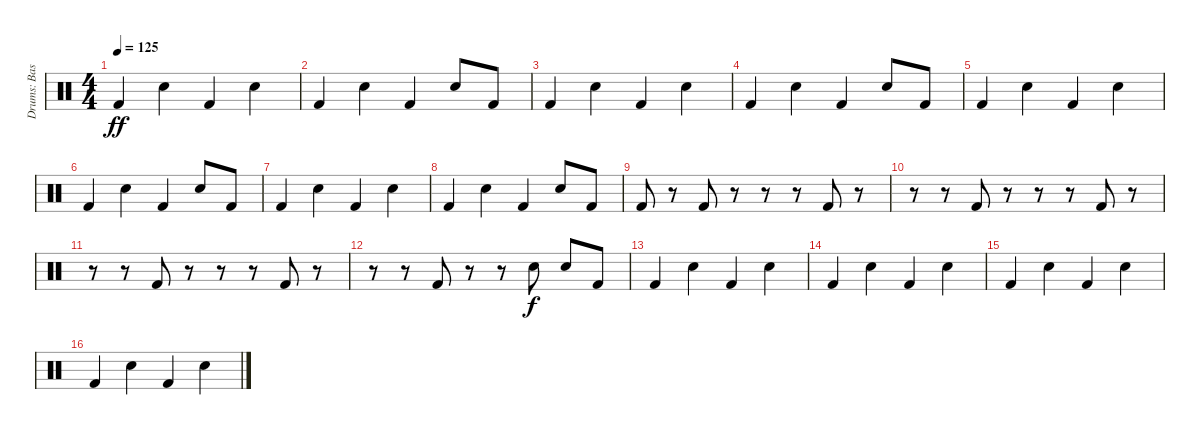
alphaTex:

\track ("Drums: Bass, Snare" "Drums: Bas") {instrument percussion}
\staff {score}
\articulation defaults
\ts (4 4)
\tempo 125
\clef neutral
\ks c "Kick (hit) 2".4{dy ff} "Electric Snare (hit)".4 "Kick (hit) 2".4 "Electric Snare (hit)".4
|
"Kick (hit) 2".4 "Electric Snare (hit)".4 "Kick (hit) 2".4 "Electric Snare (hit)".8 "Kick (hit) 2".8 |
"Kick (hit) 2".4 "Electric Snare (hit)".4 "Kick (hit) 2".4 "Electric Snare (hit)".4 |
"Kick (hit) 2".4 "Electric Snare (hit)".4 "Kick (hit) 2".4 "Electric Snare (hit)".8 "Kick (hit) 2".8 |
"Kick (hit) 2".4 "Electric Snare (hit)".4 "Kick (hit) 2".4 "Electric Snare (hit)".4 |
"Kick (hit) 2".4 "Electric Snare (hit)".4 "Kick (hit) 2".4 "Electric Snare (hit)".8 "Kick (hit) 2".8 |
"Kick (hit) 2".4 "Electric Snare (hit)".4 "Kick (hit) 2".4 "Electric Snare (hit)".4 |
"Kick (hit) 2".4 "Electric Snare (hit)".4 "Kick (hit) 2".4 "Electric Snare (hit)".8 "Kick (hit) 2".8 |
"Kick (hit) 2".8 r.8 "Kick (hit) 2".8 r.8 r.8 r.8 "Kick (hit) 2".8 r.8 |
r.8 r.8 "Kick (hit) 2".8 r.8 r.8 r.8 "Kick (hit) 2".8 r.8 |
r.8 r.8 "Kick (hit) 2".8 r.8 r.8 r.8 "Kick (hit) 2".8 r.8 |
r.8 r.8 "Kick (hit) 2".8 r.8 r.8 "Electric Snare (hit)".8{dy f} "Electric Snare (hit)".8 "Kick (hit) 2".8 |
"Kick (hit) 2".4 "Electric Snare (hit)".4 "Kick (hit) 2".4 "Electric Snare (hit)".4 |
"Kick (hit) 2".4 "Electric Snare (hit)".4 "Kick (hit) 2".4 "Electric Snare (hit)".4 |
"Kick (hit) 2".4 "Electric Snare (hit)".4 "Kick (hit) 2".4 "Electric Snare (hit)".4 |
"Kick (hit) 2".4 "Electric Snare (hit)".4 "Kick (hit) 2".4 "Electric Snare (hit)".4
